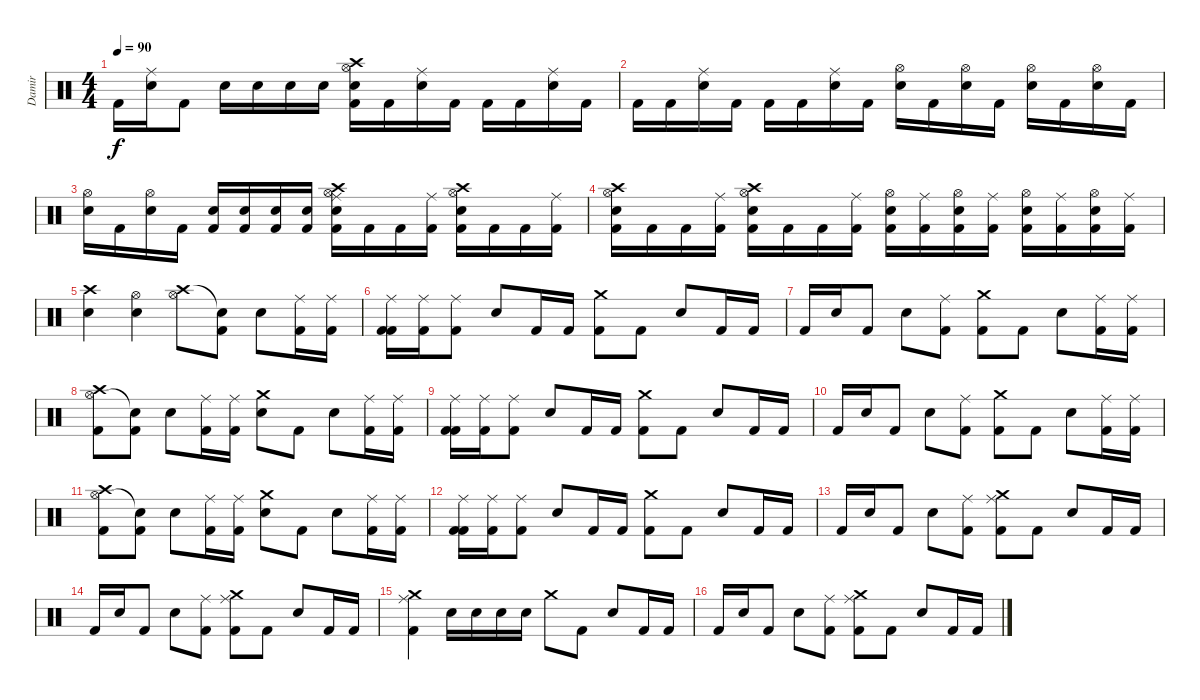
\track ("Damir" "Damir") {instrument percussion}
\staff {score}
\articulation defaults
\ts (4 4)
\tempo 90
\clef neutral
\ks c "Kick (hit) 2".16{dy f}
("Snare (hit) 2" "Ride (middle)").16 "Kick (hit) 2".8 "Snare (hit) 2".16 "Snare (hit) 2".16 "Snare (hit) 2".16 "Snare (hit) 2".16 ("Hi-Hat (open)" "Crash high (hit)" "Snare (hit) 2" "Kick (hit) 2").16 "Kick (hit) 2".16 ("Ride (middle)" "Snare (hit) 2").16 "Kick (hit) 2".16 "Kick (hit) 2".16 "Kick (hit) 2".16 ("Ride (middle)" "Snare (hit) 2").16 "Kick (hit) 2".16 |
"Kick (hit) 2".16 "Kick (hit) 2".16 ("Ride (middle)" "Snare (hit) 2").16 "Kick (hit) 2".16 "Kick (hit) 2".16 "Kick (hit) 2".16 ("Ride (middle)" "Snare (hit) 2").16 "Kick (hit) 2".16 ("Hi-Hat (open)" "Snare (hit) 2").16 "Kick (hit) 2".16 ("Hi-Hat (open)" "Snare (hit) 2").16 "Kick (hit) 2".16 ("Hi-Hat (open)" "Snare (hit) 2").16 "Kick (hit) 2".16 ("Hi-Hat (open)" "Snare (hit) 2").16 "Kick (hit) 2".16 |
("Hi-Hat (open)" "Snare (hit) 2").16 "Kick (hit) 2".16 ("Hi-Hat (open)" "Snare (hit) 2").16 "Kick (hit) 2".16 ("Snare (hit) 2" "Kick (hit) 2").16 ("Snare (hit) 2" "Kick (hit) 2").16 ("Snare (hit) 2" "Kick (hit) 2").16 ("Snare (hit) 2" "Kick (hit) 2").16 ("Ride (middle)" "Crash high (hit)" "Hi-Hat (open)" "Snare (hit) 2" "Kick (hit) 2").16 "Kick (hit) 2".16 "Kick (hit) 2".16 ("Ride (middle)" "Kick (hit) 2").16 ("Crash high (hit)" "Hi-Hat (open)" "Snare (hit) 2" "Kick (hit) 2").16 "Kick (hit) 2".16 "Kick (hit) 2".16 ("Ride (middle)" "Kick (hit) 2").16 |
("Crash high (hit)" "Hi-Hat (open)" "Snare (hit) 2" "Kick (hit) 2").16 "Kick (hit) 2".16 "Kick (hit) 2".16 ("Kick (hit) 2" "Ride (middle)").16 ("Hi-Hat (open)" "Crash high (hit)" "Kick (hit) 2" "Snare (hit) 2").16 "Kick (hit) 2".16 "Kick (hit) 2".16 ("Ride (middle)" "Kick (hit) 2").16 ("Hi-Hat (open)" "Kick (hit) 2" "Snare (hit) 2").16 ("Ride (middle)" "Kick (hit) 2").16 ("Hi-Hat (open)" "Kick (hit) 2" "Snare (hit) 2").16 ("Ride (middle)" "Kick (hit) 2").16 ("Hi-Hat (open)" "Snare (hit) 2" "Kick (hit) 2").16 ("Ride (middle)" "Kick (hit) 2").16 ("Hi-Hat (open)" "Kick (hit) 2" "Snare (hit) 2").16 ("Ride (middle)" "Kick (hit) 2").16 |
("Crash high (hit)" "Snare (hit) 2").4 ("Snare (hit) 2" "Hi-Hat (open)").4 ("Hi-Hat (open)" "Crash high (hit)").8 ("Kick (hit) 2" "Snare (hit)"{t}).8 "Snare (hit) 2".8 ("Kick (hit) 2" "Ride (middle)").16 ("Kick (hit) 2" "Ride (middle)").16 |
("Kick (hit) 2" "Ride (middle)" "Kick (hit) 2").16 ("Kick (hit) 2" "Ride (middle)").16 ("Kick (hit) 2" "Ride (middle)").8 "Snare (hit) 2".8 "Kick (hit) 2".16 "Kick (hit) 2".16 ("Kick (hit) 2" "Crash medium (hit)").8 "Kick (hit) 2".8 "Snare (hit) 2".8 "Kick (hit) 2".16 "Kick (hit) 2".16 |
"Kick (hit) 2".16 "Snare (hit) 2".16 "Kick (hit) 2".8 "Snare (hit) 2".8 ("Kick (hit) 2" "Ride (middle)").8 ("Crash medium (hit)" "Kick (hit) 2").8 "Kick (hit) 2".8 "Snare (hit) 2".8 ("Kick (hit) 2" "Ride (middle)").16 ("Kick (hit) 2" "Ride (middle)").16 |
("Kick (hit) 2" "Hi-Hat (open)" "Crash high (hit)").8 ("Kick (hit) 2" "Snare (hit)"{t}).8 "Snare (hit) 2".8 ("Kick (hit) 2" "Ride (middle)").16 ("Kick (hit) 2" "Ride (middle)").16 ("Crash medium (hit)" "Snare (hit) 2").8 "Kick (hit) 2".8 "Snare (hit) 2".8 ("Kick (hit) 2" "Ride (middle)").16 ("Kick (hit) 2" "Ride (middle)").16 |
("Kick (hit) 2" "Ride (middle)" "Kick (hit) 2").16 ("Kick (hit) 2" "Ride (middle)").16 ("Kick (hit) 2" "Ride (middle)").8 "Snare (hit) 2".8 "Kick (hit) 2".16 "Kick (hit) 2".16 ("Kick (hit) 2" "Crash medium (hit)").8 "Kick (hit) 2".8 "Snare (hit) 2".8 "Kick (hit) 2".16 "Kick (hit) 2".16 |
"Kick (hit) 2".16 "Snare (hit) 2".16 "Kick (hit) 2".8 "Snare (hit) 2".8 ("Kick (hit) 2" "Ride (middle)").8 ("Crash medium (hit)" "Kick (hit) 2").8 "Kick (hit) 2".8 "Snare (hit) 2".8 ("Kick (hit) 2" "Ride (middle)").16 ("Kick (hit) 2" "Ride (middle)").16 |
("Kick (hit) 2" "Hi-Hat (open)" "Crash high (hit)").8 ("Kick (hit) 2" "Snare (hit)"{t}).8 "Snare (hit) 2".8 ("Kick (hit) 2" "Ride (middle)").16 ("Kick (hit) 2" "Ride (middle)").16 ("Crash medium (hit)" "Snare (hit) 2").8 "Kick (hit) 2".8 "Snare (hit) 2".8 ("Kick (hit) 2" "Ride (middle)").16 ("Kick (hit) 2" "Ride (middle)").16 |
("Kick (hit) 2" "Ride (middle)" "Kick (hit) 2").16 ("Kick (hit) 2" "Ride (middle)").16 ("Kick (hit) 2" "Ride (middle)").8 "Snare (hit) 2".8 "Kick (hit) 2".16 "Kick (hit) 2".16 ("Kick (hit) 2" "Crash medium (hit)").8 "Kick (hit) 2".8 "Snare (hit) 2".8 "Kick (hit) 2".16 "Kick (hit) 2".16 |
"Kick (hit) 2".16 "Snare (hit) 2".16 "Kick (hit) 2".8 "Snare (hit) 2".8 ("Kick (hit) 2" "Ride (middle)").8 ("Kick (hit) 2" "Ride (middle)" "Crash medium (hit)").8 "Kick (hit) 2".8 "Snare (hit) 2".8 "Kick (hit) 2".16 "Kick (hit) 2".16 |
"Kick (hit) 2".16 "Snare (hit) 2".16 "Kick (hit) 2".8 "Snare (hit) 2".8 ("Kick (hit) 2" "Ride (middle)").8 ("Kick (hit) 2" "Ride (middle)" "Crash medium (hit)").8 "Kick (hit) 2".8 "Snare (hit) 2".8 "Kick (hit) 2".16 "Kick (hit) 2".16 |
("Kick (hit) 2" "Ride (middle)" "Crash medium (hit)").4 "Snare (hit) 2".16 "Snare (hit) 2".16 "Snare (hit) 2".16 "Snare (hit) 2".16 "Crash medium (hit)".8 "Kick (hit) 2".8 "Snare (hit) 2".8 "Kick (hit) 2".16 "Kick (hit) 2".16 |
"Kick (hit) 2".16 "Snare (hit) 2".16 "Kick (hit) 2".8 "Snare (hit) 2".8 ("Kick (hit) 2" "Ride (middle)").8 ("Kick (hit) 2" "Ride (middle)" "Crash medium (hit)").8 "Kick (hit) 2".8 "Snare (hit) 2".8 "Kick (hit) 2".16 "Kick (hit) 2".16
